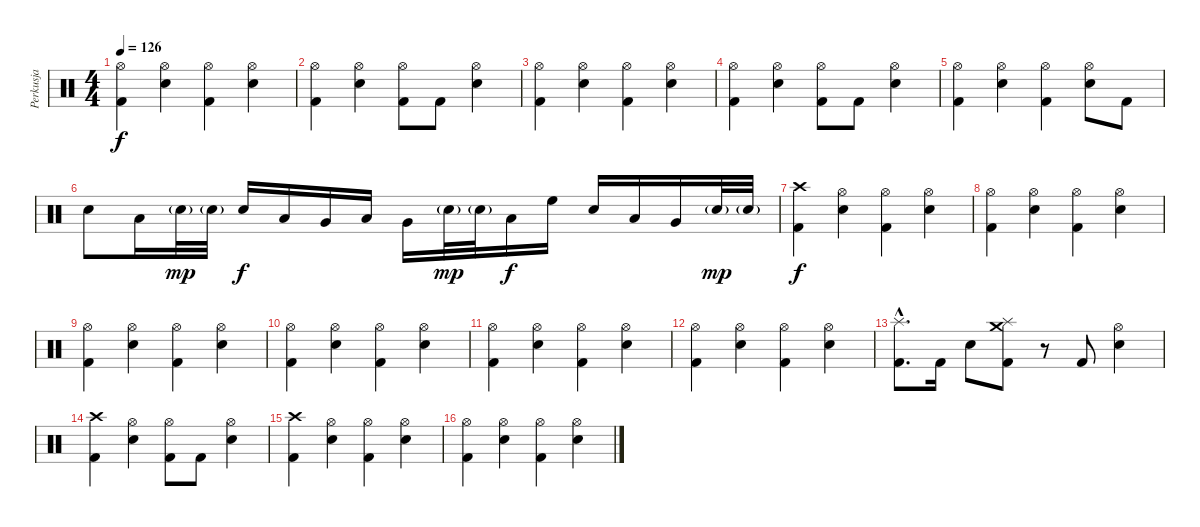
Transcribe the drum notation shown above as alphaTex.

\track ("Perkusja" "Perkusja") {instrument percussion}
\staff {score}
\articulation defaults
\ts (4 4)
\tempo 126
\clef neutral
\ks c
("Hi-Hat (open)" "Kick (hit) 2").4{dy f} ("Hi-Hat (open)" "Electric Snare (hit)").4 ("Hi-Hat (open)" "Kick (hit) 2").4 ("Hi-Hat (open)" "Electric Snare (hit)").4 |
("Hi-Hat (open)" "Kick (hit) 2").4 ("Hi-Hat (open)" "Electric Snare (hit)").4 ("Hi-Hat (open)" "Kick (hit) 2").8 "Kick (hit) 2".8 ("Hi-Hat (open)" "Electric Snare (hit)").4 |
("Hi-Hat (open)" "Kick (hit) 2").4 ("Hi-Hat (open)" "Electric Snare (hit)").4 ("Hi-Hat (open)" "Kick (hit) 2").4 ("Hi-Hat (open)" "Electric Snare (hit)").4 |
("Hi-Hat (open)" "Kick (hit) 2").4 ("Hi-Hat (open)" "Electric Snare (hit)").4 ("Hi-Hat (open)" "Kick (hit) 2").8 "Kick (hit) 2".8 ("Hi-Hat (open)" "Electric Snare (hit)").4 |
("Hi-Hat (open)" "Kick (hit) 2").4 ("Hi-Hat (open)" "Electric Snare (hit)").4 ("Hi-Hat (open)" "Kick (hit) 2").4 ("Hi-Hat (open)" "Electric Snare (hit)").8 "Kick (hit) 2".8 |
"Electric Snare (hit)".8 "Low Tom (hit)".16 "Electric Snare (hit)"{g}.32{dy mp} "Electric Snare (hit)"{g}.32 "Electric Snare (hit)".16{dy f} "Low Tom (hit)".16 "Very Low Tom (hit)".16 "Low Floor Tom (hit)".16 "Very Low Tom (hit)".16 "Electric Snare (hit)"{g}.32{dy mp} "Electric Snare (hit)"{g}.32 "Low Tom (hit)".16{dy f} "High Floor Tom (hit)".16 "Electric Snare (hit)".16 "Low Tom (hit)".16 "Very Low Tom (hit)".16 "Electric Snare (hit)"{g}.32{dy mp} "Electric Snare (hit)"{g}.32 |
("Crash high (hit)" "Kick (hit) 2").4{dy f} ("Hi-Hat (open)" "Electric Snare (hit)").4 ("Hi-Hat (open)" "Kick (hit) 2").4 ("Hi-Hat (open)" "Electric Snare (hit)").4 |
("Hi-Hat (open)" "Kick (hit) 2").4 ("Hi-Hat (open)" "Electric Snare (hit)").4 ("Hi-Hat (open)" "Kick (hit) 2").4 ("Hi-Hat (open)" "Electric Snare (hit)").4 |
("Hi-Hat (open)" "Kick (hit) 2").4 ("Hi-Hat (open)" "Electric Snare (hit)").4 ("Hi-Hat (open)" "Kick (hit) 2").4 ("Hi-Hat (open)" "Electric Snare (hit)").4 |
("Hi-Hat (open)" "Kick (hit) 2").4 ("Hi-Hat (open)" "Electric Snare (hit)").4 ("Hi-Hat (open)" "Kick (hit) 2").4 ("Hi-Hat (open)" "Electric Snare (hit)").4 |
("Hi-Hat (open)" "Kick (hit) 2").4 ("Hi-Hat (open)" "Electric Snare (hit)").4 ("Hi-Hat (open)" "Kick (hit) 2").4 ("Hi-Hat (open)" "Electric Snare (hit)").4 |
("Hi-Hat (open)" "Kick (hit) 2").4 ("Hi-Hat (open)" "Electric Snare (hit)").4 ("Hi-Hat (open)" "Kick (hit) 2").4 ("Hi-Hat (open)" "Electric Snare (hit)").4 |
("Splash (hit)"{hac} "Kick (hit) 2"{hac}).8{d} "Kick (hit) 2".16 "Electric Snare (hit)".8 ("Crash medium (hit)" "Splash (hit)" "Kick (hit) 2").8 r.8 "Kick (hit) 2".8 ("Hi-Hat (open)" "Electric Snare (hit)").4 |
("Crash high (hit)" "Kick (hit) 2").4 ("Hi-Hat (open)" "Electric Snare (hit)").4 ("Hi-Hat (open)" "Kick (hit) 2").8 "Kick (hit) 2".8 ("Hi-Hat (open)" "Electric Snare (hit)").4 |
("Crash high (hit)" "Kick (hit) 2").4 ("Hi-Hat (open)" "Electric Snare (hit)").4 ("Hi-Hat (open)" "Kick (hit) 2").4 ("Hi-Hat (open)" "Electric Snare (hit)").4 |
("Hi-Hat (open)" "Kick (hit) 2").4 ("Hi-Hat (open)" "Electric Snare (hit)").4 ("Hi-Hat (open)" "Kick (hit) 2").4 ("Hi-Hat (open)" "Electric Snare (hit)").4
